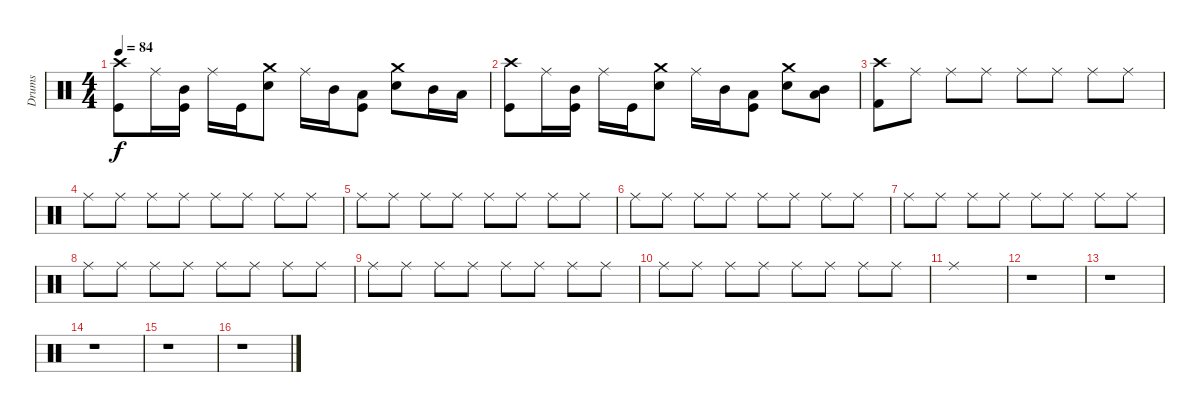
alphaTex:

\track ("Drums" "Drums") {instrument percussion}
\staff {score}
\articulation defaults
\ts (4 4)
\tempo 84
\clef neutral
\ks c
("Crash high (hit)" "Kick (hit)").8{dy f} "Ride (middle)".16 ("Mid Tom (hit)" "Kick (hit)").16 "Ride (middle)".16 "Kick (hit)".16 ("Crash medium (hit)" "Electric Snare (hit)").8 "Ride (middle)".16 "Mid Tom (hit)".16 ("Low Tom (hit)" "Kick (hit)").8 ("Crash medium (hit)" "Electric Snare (hit)").8 "Mid Tom (hit)".16 "Low Tom (hit)".16 |
("Crash high (hit)" "Kick (hit)").8 "Ride (middle)".16 ("Mid Tom (hit)" "Kick (hit)").16 "Ride (middle)".16 "Kick (hit)".16 ("Crash medium (hit)" "Electric Snare (hit)").8 "Ride (middle)".16 "Mid Tom (hit)".16 ("Low Tom (hit)" "Kick (hit)").8 ("Crash medium (hit)" "Electric Snare (hit)").8 ("Mid Tom (hit)" "Low Tom (hit)").8{bu 60} |
("Crash high (hit)" "Kick (hit) 2").8 "Ride (middle)".8 "Ride (middle)".8 "Ride (middle)".8 "Ride (middle)".8 "Ride (middle)".8 "Ride (middle)".8 "Ride (middle)".8 |
"Ride (middle)".8 "Ride (middle)".8 "Ride (middle)".8 "Ride (middle)".8 "Ride (middle)".8 "Ride (middle)".8 "Ride (middle)".8 "Ride (middle)".8 |
"Ride (middle)".8 "Ride (middle)".8 "Ride (middle)".8 "Ride (middle)".8 "Ride (middle)".8 "Ride (middle)".8 "Ride (middle)".8 "Ride (middle)".8 |
"Ride (middle)".8 "Ride (middle)".8 "Ride (middle)".8 "Ride (middle)".8 "Ride (middle)".8 "Ride (middle)".8 "Ride (middle)".8 "Ride (middle)".8 |
"Ride (middle)".8 "Ride (middle)".8 "Ride (middle)".8 "Ride (middle)".8 "Ride (middle)".8 "Ride (middle)".8 "Ride (middle)".8 "Ride (middle)".8 |
"Ride (middle)".8 "Ride (middle)".8 "Ride (middle)".8 "Ride (middle)".8 "Ride (middle)".8 "Ride (middle)".8 "Ride (middle)".8 "Ride (middle)".8 |
"Ride (middle)".8 "Ride (middle)".8 "Ride (middle)".8 "Ride (middle)".8 "Ride (middle)".8 "Ride (middle)".8 "Ride (middle)".8 "Ride (middle)".8 |
"Ride (middle)".8 "Ride (middle)".8 "Ride (middle)".8 "Ride (middle)".8 "Ride (middle)".8 "Ride (middle)".8 "Ride (middle)".8 "Ride (middle)".8 |
"Ride (middle)".1 |
r.1 |
r.1 |
r.1 |
r.1 |
r.1
